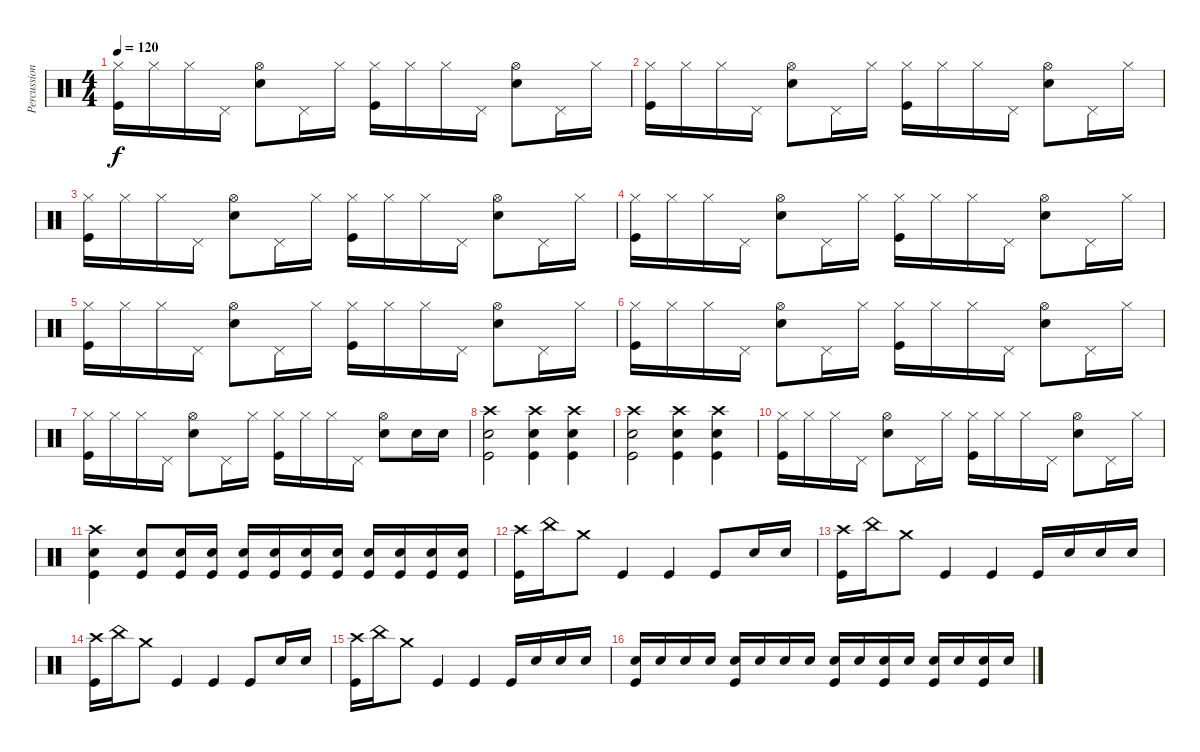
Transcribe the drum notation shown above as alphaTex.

\track ("Percussions" "Percussion") {instrument percussion}
\staff {score}
\articulation defaults
\ts (4 4)
\tempo 120
\clef neutral
\ks c
("Hi-Hat (closed)" "Kick (hit)").16{dy f} "Hi-Hat (closed)".16 "Hi-Hat (closed)".16 "Pedal Hi-Hat (hit)".16 ("Hi-Hat (open)" "Snare (hit) 2").8 "Pedal Hi-Hat (hit)".16 "Hi-Hat (closed)".16 ("Hi-Hat (closed)" "Kick (hit)").16 "Hi-Hat (closed)".16 "Hi-Hat (closed)".16 "Pedal Hi-Hat (hit)".16 ("Hi-Hat (open)" "Snare (hit) 2").8 "Pedal Hi-Hat (hit)".16 "Hi-Hat (closed)".16 |
("Hi-Hat (closed)" "Kick (hit)").16 "Hi-Hat (closed)".16 "Hi-Hat (closed)".16 "Pedal Hi-Hat (hit)".16 ("Hi-Hat (open)" "Snare (hit) 2").8 "Pedal Hi-Hat (hit)".16 "Hi-Hat (closed)".16 ("Hi-Hat (closed)" "Kick (hit)").16 "Hi-Hat (closed)".16 "Hi-Hat (closed)".16 "Pedal Hi-Hat (hit)".16 ("Hi-Hat (open)" "Snare (hit) 2").8 "Pedal Hi-Hat (hit)".16 "Hi-Hat (closed)".16 |
("Hi-Hat (closed)" "Kick (hit)").16 "Hi-Hat (closed)".16 "Hi-Hat (closed)".16 "Pedal Hi-Hat (hit)".16 ("Hi-Hat (open)" "Snare (hit) 2").8 "Pedal Hi-Hat (hit)".16 "Hi-Hat (closed)".16 ("Hi-Hat (closed)" "Kick (hit)").16 "Hi-Hat (closed)".16 "Hi-Hat (closed)".16 "Pedal Hi-Hat (hit)".16 ("Hi-Hat (open)" "Snare (hit) 2").8 "Pedal Hi-Hat (hit)".16 "Hi-Hat (closed)".16 |
("Hi-Hat (closed)" "Kick (hit)").16 "Hi-Hat (closed)".16 "Hi-Hat (closed)".16 "Pedal Hi-Hat (hit)".16 ("Hi-Hat (open)" "Snare (hit) 2").8 "Pedal Hi-Hat (hit)".16 "Hi-Hat (closed)".16 ("Hi-Hat (closed)" "Kick (hit)").16 "Hi-Hat (closed)".16 "Hi-Hat (closed)".16 "Pedal Hi-Hat (hit)".16 ("Hi-Hat (open)" "Snare (hit) 2").8 "Pedal Hi-Hat (hit)".16 "Hi-Hat (closed)".16 |
("Hi-Hat (closed)" "Kick (hit)").16 "Hi-Hat (closed)".16 "Hi-Hat (closed)".16 "Pedal Hi-Hat (hit)".16 ("Hi-Hat (open)" "Snare (hit) 2").8 "Pedal Hi-Hat (hit)".16 "Hi-Hat (closed)".16 ("Hi-Hat (closed)" "Kick (hit)").16 "Hi-Hat (closed)".16 "Hi-Hat (closed)".16 "Pedal Hi-Hat (hit)".16 ("Hi-Hat (open)" "Snare (hit) 2").8 "Pedal Hi-Hat (hit)".16 "Hi-Hat (closed)".16 |
("Hi-Hat (closed)" "Kick (hit)").16 "Hi-Hat (closed)".16 "Hi-Hat (closed)".16 "Pedal Hi-Hat (hit)".16 ("Hi-Hat (open)" "Snare (hit) 2").8 "Pedal Hi-Hat (hit)".16 "Hi-Hat (closed)".16 ("Hi-Hat (closed)" "Kick (hit)").16 "Hi-Hat (closed)".16 "Hi-Hat (closed)".16 "Pedal Hi-Hat (hit)".16 ("Hi-Hat (open)" "Snare (hit) 2").8 "Pedal Hi-Hat (hit)".16 "Hi-Hat (closed)".16 |
("Hi-Hat (closed)" "Kick (hit)").16 "Hi-Hat (closed)".16 "Hi-Hat (closed)".16 "Pedal Hi-Hat (hit)".16 ("Hi-Hat (open)" "Snare (hit) 2").8 "Pedal Hi-Hat (hit)".16 "Hi-Hat (closed)".16 ("Hi-Hat (closed)" "Kick (hit)").16 "Hi-Hat (closed)".16 "Hi-Hat (closed)".16 "Pedal Hi-Hat (hit)".16 ("Hi-Hat (open)" "Snare (hit) 2").8 "Snare (hit) 2".16 "Snare (hit) 2".16 |
("Crash high (hit)" "Snare (hit) 2" "Kick (hit)").2 ("Crash high (hit)" "Snare (hit) 2" "Kick (hit)").4 ("Crash high (hit)" "Snare (hit) 2" "Kick (hit)").4 |
("Crash high (hit)" "Snare (hit) 2" "Kick (hit)").2 ("Crash high (hit)" "Snare (hit) 2" "Kick (hit)").4 ("Crash high (hit)" "Snare (hit) 2" "Kick (hit)").4 |
("Hi-Hat (closed)" "Kick (hit)").16 "Hi-Hat (closed)".16 "Hi-Hat (closed)".16 "Pedal Hi-Hat (hit)".16 ("Hi-Hat (open)" "Snare (hit) 2").8 "Pedal Hi-Hat (hit)".16 "Hi-Hat (closed)".16 ("Hi-Hat (closed)" "Kick (hit)").16 "Hi-Hat (closed)".16 "Hi-Hat (closed)".16 "Pedal Hi-Hat (hit)".16 ("Hi-Hat (open)" "Snare (hit) 2").8 "Pedal Hi-Hat (hit)".16 "Hi-Hat (closed)".16 |
("Crash high (hit)" "Snare (hit) 2" "Kick (hit)").4 ("Snare (hit) 2" "Kick (hit)").8 ("Snare (hit) 2" "Kick (hit)").16 ("Snare (hit) 2" "Kick (hit)").16 ("Snare (hit) 2" "Kick (hit)").16 ("Snare (hit) 2" "Kick (hit)").16 ("Snare (hit) 2" "Kick (hit)").16 ("Snare (hit) 2" "Kick (hit)").16 ("Snare (hit) 2" "Kick (hit)").16 ("Snare (hit) 2" "Kick (hit)").16 ("Snare (hit) 2" "Kick (hit)").16 ("Snare (hit) 2" "Kick (hit)").16 |
("Crash high (hit)" "Kick (hit)").16 "China (hit)".16 "Crash medium (hit)".8 "Kick (hit)".4 "Kick (hit)".4 "Kick (hit)".8 "Snare (hit) 2".16 "Snare (hit) 2".16 |
("Crash high (hit)" "Kick (hit)").16 "China (hit)".16 "Crash medium (hit)".8 "Kick (hit)".4 "Kick (hit)".4 "Kick (hit)".16 "Snare (hit) 2".16 "Snare (hit) 2".16 "Snare (hit) 2".16 |
("Crash high (hit)" "Kick (hit)").16 "China (hit)".16 "Crash medium (hit)".8 "Kick (hit)".4 "Kick (hit)".4 "Kick (hit)".8 "Snare (hit) 2".16 "Snare (hit) 2".16 |
("Crash high (hit)" "Kick (hit)").16 "China (hit)".16 "Crash medium (hit)".8 "Kick (hit)".4 "Kick (hit)".4 "Kick (hit)".16 "Snare (hit) 2".16 "Snare (hit) 2".16 "Snare (hit) 2".16 |
("Snare (hit) 2" "Kick (hit)").16 "Snare (hit) 2".16 "Snare (hit) 2".16 "Snare (hit) 2".16 ("Snare (hit) 2" "Kick (hit)").16 "Snare (hit) 2".16 "Snare (hit) 2".16 "Snare (hit) 2".16 ("Snare (hit) 2" "Kick (hit)").16 "Snare (hit) 2".16 ("Snare (hit) 2" "Kick (hit)").16 "Snare (hit) 2".16 ("Snare (hit) 2" "Kick (hit)").16 "Snare (hit) 2".16 ("Snare (hit) 2" "Kick (hit)").16 "Snare (hit) 2".16
